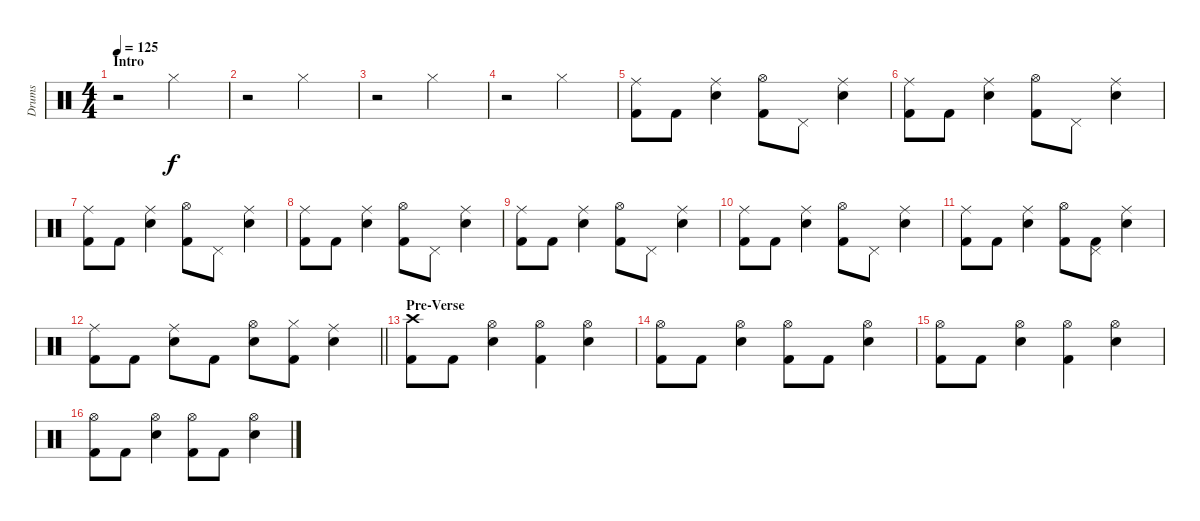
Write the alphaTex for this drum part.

\track ("Drums" "Drums") {instrument percussion}
\staff {score}
\articulation defaults
\ts (4 4)
\section ("" "Intro")
\tempo 125
\clef neutral
\ks c
r.2{dy f} "Hi-Hat (closed)".2 |
r.2 "Hi-Hat (closed)".2 |
r.2 "Hi-Hat (closed)".2 |
r.2 "Hi-Hat (closed)".2 |
("Ride (middle)" "Kick (hit) 2").8 "Kick (hit) 2".8 ("Ride (middle)" "Electric Snare (hit)").4 ("Hi-Hat (open)" "Kick (hit) 2").8 "Pedal Hi-Hat (hit)".8 ("Ride (middle)" "Electric Snare (hit)").4 |
("Ride (middle)" "Kick (hit) 2").8 "Kick (hit) 2".8 ("Ride (middle)" "Electric Snare (hit)").4 ("Hi-Hat (open)" "Kick (hit) 2").8 "Pedal Hi-Hat (hit)".8 ("Ride (middle)" "Electric Snare (hit)").4 |
("Ride (middle)" "Kick (hit) 2").8 "Kick (hit) 2".8 ("Ride (middle)" "Electric Snare (hit)").4 ("Hi-Hat (open)" "Kick (hit) 2").8 "Pedal Hi-Hat (hit)".8 ("Ride (middle)" "Electric Snare (hit)").4 |
("Ride (middle)" "Kick (hit) 2").8 "Kick (hit) 2".8 ("Ride (middle)" "Electric Snare (hit)").4 ("Hi-Hat (open)" "Kick (hit) 2").8 "Pedal Hi-Hat (hit)".8 ("Ride (middle)" "Electric Snare (hit)").4 |
("Ride (middle)" "Kick (hit) 2").8 "Kick (hit) 2".8 ("Ride (middle)" "Electric Snare (hit)").4 ("Hi-Hat (open)" "Kick (hit) 2").8 "Pedal Hi-Hat (hit)".8 ("Ride (middle)" "Electric Snare (hit)").4 |
("Ride (middle)" "Kick (hit) 2").8 "Kick (hit) 2".8 ("Ride (middle)" "Electric Snare (hit)").4 ("Hi-Hat (open)" "Kick (hit) 2").8 "Pedal Hi-Hat (hit)".8 ("Ride (middle)" "Electric Snare (hit)").4 |
("Ride (middle)" "Kick (hit) 2").8 "Kick (hit) 2".8 ("Ride (middle)" "Electric Snare (hit)").4 ("Hi-Hat (open)" "Kick (hit) 2").8 ("Pedal Hi-Hat (hit)" "Kick (hit) 2").8 ("Ride (middle)" "Electric Snare (hit)").4 |
\barLineRight lightlight
("Ride (middle)" "Kick (hit) 2").8 "Kick (hit) 2".8 ("Ride (middle)" "Electric Snare (hit)").8 "Kick (hit) 2".8 ("Hi-Hat (open)" "Electric Snare (hit)").8 ("Hi-Hat (closed)" "Kick (hit) 2").8 ("Ride (middle)" "Electric Snare (hit)").4 |
\section ("" "Pre-Verse")
("Crash high (hit)" "Kick (hit) 2").8 "Kick (hit) 2".8 ("Hi-Hat (open)" "Electric Snare (hit)").4 ("Hi-Hat (open)" "Kick (hit) 2").4 ("Hi-Hat (open)" "Electric Snare (hit)").4 |
("Hi-Hat (open)" "Kick (hit) 2").8 "Kick (hit) 2".8 ("Hi-Hat (open)" "Electric Snare (hit)").4 ("Hi-Hat (open)" "Kick (hit) 2").8 "Kick (hit) 2".8 ("Hi-Hat (open)" "Electric Snare (hit)").4 |
("Hi-Hat (open)" "Kick (hit) 2").8 "Kick (hit) 2".8 ("Hi-Hat (open)" "Electric Snare (hit)").4 ("Hi-Hat (open)" "Kick (hit) 2").4 ("Hi-Hat (open)" "Electric Snare (hit)").4 |
("Hi-Hat (open)" "Kick (hit) 2").8 "Kick (hit) 2".8 ("Hi-Hat (open)" "Electric Snare (hit)").4 ("Hi-Hat (open)" "Kick (hit) 2").8 "Kick (hit) 2".8 ("Hi-Hat (open)" "Electric Snare (hit)").4
